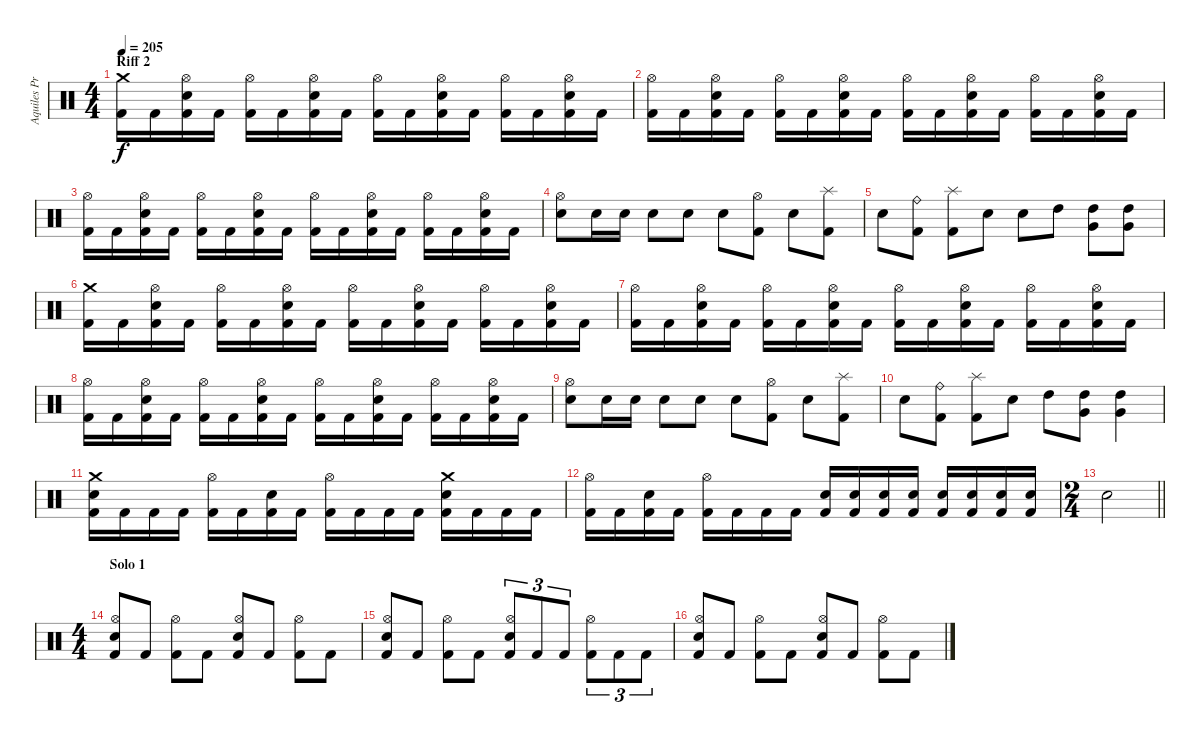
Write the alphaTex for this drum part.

\track ("Aquiles Priester" "Aquiles Pr") {instrument percussion}
\staff {score}
\articulation defaults
\ts (4 4)
\section ("" "Riff 2")
\tempo 205
\clef neutral
\ks c
("Crash medium (hit)" "Kick (hit) 2").16{dy f} "Kick (hit) 2".16 ("Hi-Hat (open)" "Electric Snare (hit)" "Kick (hit) 2").16 "Kick (hit) 2".16 ("Hi-Hat (open)" "Kick (hit) 2").16 "Kick (hit) 2".16 ("Hi-Hat (open)" "Electric Snare (hit)" "Kick (hit) 2").16 "Kick (hit) 2".16 ("Hi-Hat (open)" "Kick (hit) 2").16 "Kick (hit) 2".16 ("Hi-Hat (open)" "Electric Snare (hit)" "Kick (hit) 2").16 "Kick (hit) 2".16 ("Hi-Hat (open)" "Kick (hit) 2").16 "Kick (hit) 2".16 ("Hi-Hat (open)" "Electric Snare (hit)" "Kick (hit) 2").16 "Kick (hit) 2".16 |
("Hi-Hat (open)" "Kick (hit) 2").16 "Kick (hit) 2".16 ("Hi-Hat (open)" "Electric Snare (hit)" "Kick (hit) 2").16 "Kick (hit) 2".16 ("Hi-Hat (open)" "Kick (hit) 2").16 "Kick (hit) 2".16 ("Hi-Hat (open)" "Electric Snare (hit)" "Kick (hit) 2").16 "Kick (hit) 2".16 ("Hi-Hat (open)" "Kick (hit) 2").16 "Kick (hit) 2".16 ("Hi-Hat (open)" "Electric Snare (hit)" "Kick (hit) 2").16 "Kick (hit) 2".16 ("Hi-Hat (open)" "Kick (hit) 2").16 "Kick (hit) 2".16 ("Hi-Hat (open)" "Electric Snare (hit)" "Kick (hit) 2").16 "Kick (hit) 2".16 |
("Hi-Hat (open)" "Kick (hit) 2").16 "Kick (hit) 2".16 ("Hi-Hat (open)" "Electric Snare (hit)" "Kick (hit) 2").16 "Kick (hit) 2".16 ("Hi-Hat (open)" "Kick (hit) 2").16 "Kick (hit) 2".16 ("Hi-Hat (open)" "Electric Snare (hit)" "Kick (hit) 2").16 "Kick (hit) 2".16 ("Hi-Hat (open)" "Kick (hit) 2").16 "Kick (hit) 2".16 ("Hi-Hat (open)" "Electric Snare (hit)" "Kick (hit) 2").16 "Kick (hit) 2".16 ("Hi-Hat (open)" "Kick (hit) 2").16 "Kick (hit) 2".16 ("Hi-Hat (open)" "Electric Snare (hit)" "Kick (hit) 2").16 "Kick (hit) 2".16 |
("Hi-Hat (open)" "Electric Snare (hit)").8 "Electric Snare (hit)".16 "Electric Snare (hit)".16 "Electric Snare (hit)".8 "Electric Snare (hit)".8 "Electric Snare (hit)".8 ("Hi-Hat (open)" "Kick (hit) 2").8 "Electric Snare (hit)".8 ("Splash (hit)" "Kick (hit) 2").8 |
"Electric Snare (hit)".8 ("Ride (bell)" "Kick (hit) 2").8 ("Splash (hit)" "Kick (hit) 2").8 "Electric Snare (hit)".8 "Electric Snare (hit)".8 "High Tom (hit)".8 ("High Tom (hit)" "Very Low Tom (hit)").8 ("High Tom (hit)" "Very Low Tom (hit)").8 |
("Crash medium (hit)" "Kick (hit) 2").16 "Kick (hit) 2".16 ("Hi-Hat (open)" "Electric Snare (hit)" "Kick (hit) 2").16 "Kick (hit) 2".16 ("Hi-Hat (open)" "Kick (hit) 2").16 "Kick (hit) 2".16 ("Hi-Hat (open)" "Electric Snare (hit)" "Kick (hit) 2").16 "Kick (hit) 2".16 ("Hi-Hat (open)" "Kick (hit) 2").16 "Kick (hit) 2".16 ("Hi-Hat (open)" "Electric Snare (hit)" "Kick (hit) 2").16 "Kick (hit) 2".16 ("Hi-Hat (open)" "Kick (hit) 2").16 "Kick (hit) 2".16 ("Hi-Hat (open)" "Electric Snare (hit)" "Kick (hit) 2").16 "Kick (hit) 2".16 |
("Hi-Hat (open)" "Kick (hit) 2").16 "Kick (hit) 2".16 ("Hi-Hat (open)" "Electric Snare (hit)" "Kick (hit) 2").16 "Kick (hit) 2".16 ("Hi-Hat (open)" "Kick (hit) 2").16 "Kick (hit) 2".16 ("Hi-Hat (open)" "Electric Snare (hit)" "Kick (hit) 2").16 "Kick (hit) 2".16 ("Hi-Hat (open)" "Kick (hit) 2").16 "Kick (hit) 2".16 ("Hi-Hat (open)" "Electric Snare (hit)" "Kick (hit) 2").16 "Kick (hit) 2".16 ("Hi-Hat (open)" "Kick (hit) 2").16 "Kick (hit) 2".16 ("Hi-Hat (open)" "Electric Snare (hit)" "Kick (hit) 2").16 "Kick (hit) 2".16 |
("Hi-Hat (open)" "Kick (hit) 2").16 "Kick (hit) 2".16 ("Hi-Hat (open)" "Electric Snare (hit)" "Kick (hit) 2").16 "Kick (hit) 2".16 ("Hi-Hat (open)" "Kick (hit) 2").16 "Kick (hit) 2".16 ("Hi-Hat (open)" "Electric Snare (hit)" "Kick (hit) 2").16 "Kick (hit) 2".16 ("Hi-Hat (open)" "Kick (hit) 2").16 "Kick (hit) 2".16 ("Hi-Hat (open)" "Electric Snare (hit)" "Kick (hit) 2").16 "Kick (hit) 2".16 ("Hi-Hat (open)" "Kick (hit) 2").16 "Kick (hit) 2".16 ("Hi-Hat (open)" "Electric Snare (hit)" "Kick (hit) 2").16 "Kick (hit) 2".16 |
("Hi-Hat (open)" "Electric Snare (hit)").8 "Electric Snare (hit)".16 "Electric Snare (hit)".16 "Electric Snare (hit)".8 "Electric Snare (hit)".8 "Electric Snare (hit)".8 ("Hi-Hat (open)" "Kick (hit) 2").8 "Electric Snare (hit)".8 ("Splash (hit)" "Kick (hit) 2").8 |
"Electric Snare (hit)".8 ("Ride (bell)" "Kick (hit) 2").8 ("Splash (hit)" "Kick (hit) 2").8 "Electric Snare (hit)".8 "High Tom (hit)".8 ("High Tom (hit)" "Very Low Tom (hit)").8 ("High Tom (hit)" "Very Low Tom (hit)").4 |
("Crash medium (hit)" "Electric Snare (hit)" "Kick (hit) 2").16 "Kick (hit) 2".16 "Kick (hit) 2".16 "Kick (hit) 2".16 ("Hi-Hat (open)" "Kick (hit) 2").16 "Kick (hit) 2".16 ("Electric Snare (hit)" "Kick (hit) 2").16 "Kick (hit) 2".16 ("Hi-Hat (open)" "Kick (hit) 2").16 "Kick (hit) 2".16 "Kick (hit) 2".16 "Kick (hit) 2".16 ("Crash medium (hit)" "Electric Snare (hit)" "Kick (hit) 2").16 "Kick (hit) 2".16 "Kick (hit) 2".16 "Kick (hit) 2".16 |
("Hi-Hat (open)" "Kick (hit) 2").16 "Kick (hit) 2".16 ("Electric Snare (hit)" "Kick (hit) 2").16 "Kick (hit) 2".16 ("Hi-Hat (open)" "Kick (hit) 2").16 "Kick (hit) 2".16 "Kick (hit) 2".16 "Kick (hit) 2".16 ("Electric Snare (hit)" "Kick (hit) 2").16 ("Electric Snare (hit)" "Kick (hit) 2").16 ("Electric Snare (hit)" "Kick (hit) 2").16 ("Electric Snare (hit)" "Kick (hit) 2").16 ("Electric Snare (hit)" "Kick (hit) 2").16 ("Electric Snare (hit)" "Kick (hit) 2").16 ("Electric Snare (hit)" "Kick (hit) 2").16 ("Electric Snare (hit)" "Kick (hit) 2").16 |
\ts (2 4)
\barLineRight lightlight "Electric Snare (hit)".2
|
\ts (4 4)
\section ("" "Solo 1")
("Hi-Hat (open)" "Electric Snare (hit)" "Kick (hit) 2").8 "Kick (hit) 2".8 ("Hi-Hat (open)" "Kick (hit) 2").8 "Kick (hit) 2".8 ("Hi-Hat (open)" "Electric Snare (hit)" "Kick (hit) 2").8 "Kick (hit) 2".8 ("Hi-Hat (open)" "Kick (hit) 2").8 "Kick (hit) 2".8 |
("Hi-Hat (open)" "Electric Snare (hit)" "Kick (hit) 2").8 "Kick (hit) 2".8 ("Hi-Hat (open)" "Kick (hit) 2").8 "Kick (hit) 2".8 ("Hi-Hat (open)" "Electric Snare (hit)" "Kick (hit) 2").8{tu (3 2)} "Kick (hit) 2".8{tu (3 2)} "Kick (hit) 2".8{tu (3 2)} ("Hi-Hat (open)" "Kick (hit) 2").8{tu (3 2)} "Kick (hit) 2".8{tu (3 2)} "Kick (hit) 2".8{tu (3 2)} |
("Hi-Hat (open)" "Electric Snare (hit)" "Kick (hit) 2").8 "Kick (hit) 2".8 ("Hi-Hat (open)" "Kick (hit) 2").8 "Kick (hit) 2".8 ("Hi-Hat (open)" "Electric Snare (hit)" "Kick (hit) 2").8 "Kick (hit) 2".8 ("Hi-Hat (open)" "Kick (hit) 2").8 "Kick (hit) 2".8
